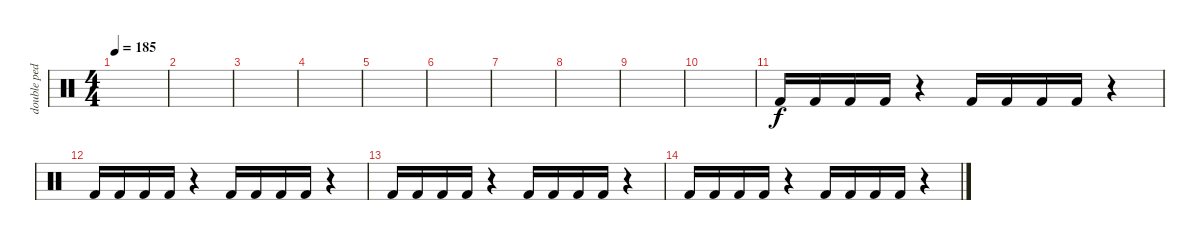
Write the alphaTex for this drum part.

\track ("double pedale" "double ped") {instrument percussion}
\staff {score}
\articulation defaults
\ts (4 4)
\tempo 185
\clef neutral
\ks c
|
|
|
|
|
|
|
|
|
|
"Kick (hit) 2".16 "Kick (hit) 2".16 "Kick (hit) 2".16 "Kick (hit) 2".16 r.4 "Kick (hit) 2".16 "Kick (hit) 2".16 "Kick (hit) 2".16 "Kick (hit) 2".16 r.4 |
"Kick (hit) 2".16 "Kick (hit) 2".16 "Kick (hit) 2".16 "Kick (hit) 2".16 r.4 "Kick (hit) 2".16 "Kick (hit) 2".16 "Kick (hit) 2".16 "Kick (hit) 2".16 r.4 |
"Kick (hit) 2".16 "Kick (hit) 2".16 "Kick (hit) 2".16 "Kick (hit) 2".16 r.4 "Kick (hit) 2".16 "Kick (hit) 2".16 "Kick (hit) 2".16 "Kick (hit) 2".16 r.4 |
"Kick (hit) 2".16 "Kick (hit) 2".16 "Kick (hit) 2".16 "Kick (hit) 2".16 r.4 "Kick (hit) 2".16 "Kick (hit) 2".16 "Kick (hit) 2".16 "Kick (hit) 2".16 r.4
